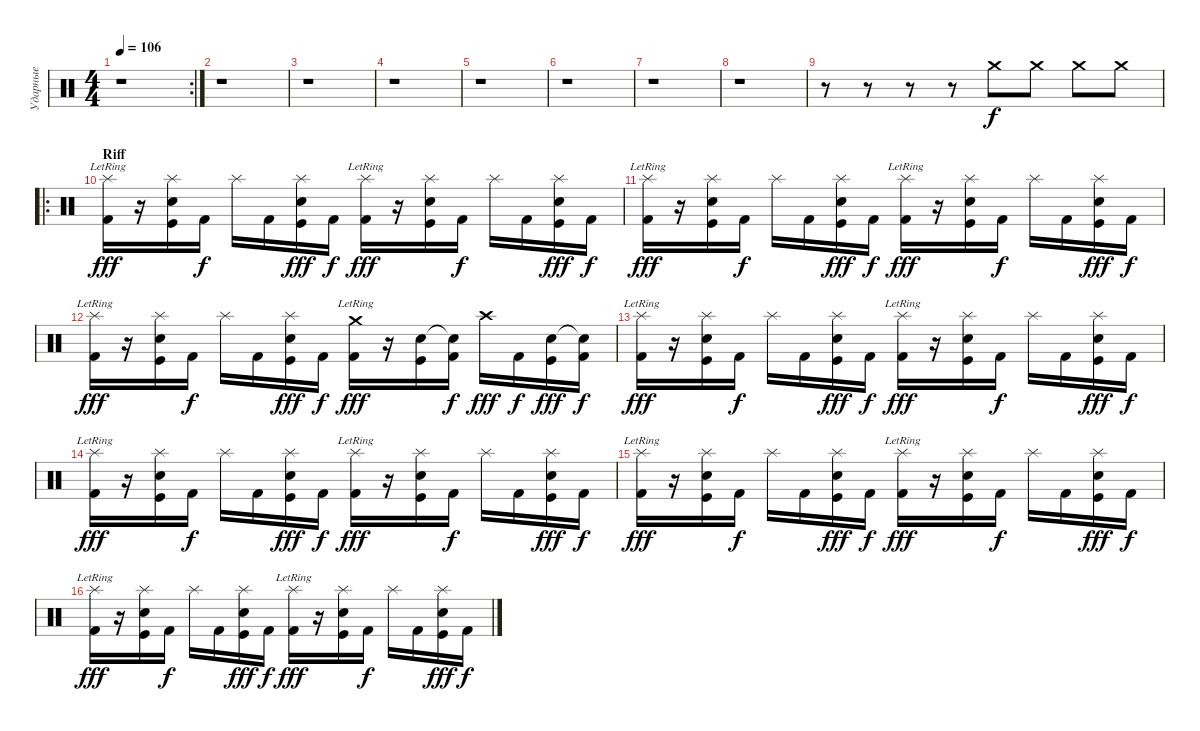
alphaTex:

\track ("Ударные" "Ударные") {instrument percussion}
\staff {score}
\articulation defaults
\rc 2
\ts (4 4)
\tempo 106
\clef neutral
\ks c
r.1{dy f} |
r.1 |
r.1 |
r.1 |
r.1 |
r.1 |
r.1 |
r.1 |
r.8 r.8 r.8 r.8 "Crash medium (hit)".8 "Crash medium (hit)".8 "Crash medium (hit)".8 "Crash medium (hit)".8 |
\ro
\section ("" "Riff")
("Splash (hit)"{lr} "Kick (hit) 2").16{dy fff} r.16 ("Splash (hit)"{pm} "Electric Snare (hit)" "Kick (hit)").16 "Kick (hit) 2".16{dy f} "Splash (hit)"{pm}.16 "Kick (hit) 2".16 ("Splash (hit)"{pm} "Electric Snare (hit)" "Kick (hit)").16{dy fff} "Kick (hit) 2".16{dy f} ("Splash (hit)"{lr} "Kick (hit) 2").16{dy fff} r.16 ("Splash (hit)"{pm} "Electric Snare (hit)" "Kick (hit)").16 "Kick (hit) 2".16{dy f} "Splash (hit)"{pm}.16 "Kick (hit) 2".16 ("Splash (hit)"{pm} "Electric Snare (hit)" "Kick (hit)").16{dy fff} "Kick (hit) 2".16{dy f} |
("Splash (hit)"{lr} "Kick (hit) 2").16{dy fff} r.16 ("Splash (hit)"{pm} "Electric Snare (hit)" "Kick (hit)").16 "Kick (hit) 2".16{dy f} "Splash (hit)"{pm}.16 "Kick (hit) 2".16 ("Splash (hit)"{pm} "Electric Snare (hit)" "Kick (hit)").16{dy fff} "Kick (hit) 2".16{dy f} ("Splash (hit)"{lr} "Kick (hit) 2").16{dy fff} r.16 ("Splash (hit)"{pm} "Electric Snare (hit)" "Kick (hit)").16 "Kick (hit) 2".16{dy f} "Splash (hit)"{pm}.16 "Kick (hit) 2".16 ("Splash (hit)"{pm} "Electric Snare (hit)" "Kick (hit)").16{dy fff} "Kick (hit) 2".16{dy f} |
("Splash (hit)"{lr} "Kick (hit) 2").16{dy fff} r.16 ("Splash (hit)"{pm} "Electric Snare (hit)" "Kick (hit)").16 "Kick (hit) 2".16{dy f} "Splash (hit)"{pm}.16 "Kick (hit) 2".16 ("Splash (hit)"{pm} "Electric Snare (hit)" "Kick (hit)").16{dy fff} "Kick (hit) 2".16{dy f} ("Crash medium (hit)"{lr} "Kick (hit) 2").16{dy fff} r.16 ("Electric Snare (hit)" "Kick (hit)").16 ("Snare (hit)"{t} "Kick (hit) 2").16{dy f} "Crash high (hit)"{pm}.16{dy fff} "Kick (hit) 2".16{dy f} ("Electric Snare (hit)" "Kick (hit)").16{dy fff} ("Snare (hit)"{t} "Kick (hit) 2").16{dy f} |
("Splash (hit)"{lr} "Kick (hit) 2").16{dy fff} r.16 ("Splash (hit)"{pm} "Electric Snare (hit)" "Kick (hit)").16 "Kick (hit) 2".16{dy f} "Splash (hit)"{pm}.16 "Kick (hit) 2".16 ("Splash (hit)"{pm} "Electric Snare (hit)" "Kick (hit)").16{dy fff} "Kick (hit) 2".16{dy f} ("Splash (hit)"{lr} "Kick (hit) 2").16{dy fff} r.16 ("Splash (hit)"{pm} "Electric Snare (hit)" "Kick (hit)").16 "Kick (hit) 2".16{dy f} "Splash (hit)"{pm}.16 "Kick (hit) 2".16 ("Splash (hit)"{pm} "Electric Snare (hit)" "Kick (hit)").16{dy fff} "Kick (hit) 2".16{dy f} |
("Splash (hit)"{lr} "Kick (hit) 2").16{dy fff} r.16 ("Splash (hit)"{pm} "Electric Snare (hit)" "Kick (hit)").16 "Kick (hit) 2".16{dy f} "Splash (hit)"{pm}.16 "Kick (hit) 2".16 ("Splash (hit)"{pm} "Electric Snare (hit)" "Kick (hit)").16{dy fff} "Kick (hit) 2".16{dy f} ("Splash (hit)"{lr} "Kick (hit) 2").16{dy fff} r.16 ("Splash (hit)"{pm} "Electric Snare (hit)" "Kick (hit)").16 "Kick (hit) 2".16{dy f} "Splash (hit)"{pm}.16 "Kick (hit) 2".16 ("Splash (hit)"{pm} "Electric Snare (hit)" "Kick (hit)").16{dy fff} "Kick (hit) 2".16{dy f} |
("Splash (hit)"{lr} "Kick (hit) 2").16{dy fff} r.16 ("Splash (hit)"{pm} "Electric Snare (hit)" "Kick (hit)").16 "Kick (hit) 2".16{dy f} "Splash (hit)"{pm}.16 "Kick (hit) 2".16 ("Splash (hit)"{pm} "Electric Snare (hit)" "Kick (hit)").16{dy fff} "Kick (hit) 2".16{dy f} ("Splash (hit)"{lr} "Kick (hit) 2").16{dy fff} r.16 ("Splash (hit)"{pm} "Electric Snare (hit)" "Kick (hit)").16 "Kick (hit) 2".16{dy f} "Splash (hit)"{pm}.16 "Kick (hit) 2".16 ("Splash (hit)"{pm} "Electric Snare (hit)" "Kick (hit)").16{dy fff} "Kick (hit) 2".16{dy f} |
("Splash (hit)"{lr} "Kick (hit) 2").16{dy fff} r.16 ("Splash (hit)"{pm} "Electric Snare (hit)" "Kick (hit)").16 "Kick (hit) 2".16{dy f} "Splash (hit)"{pm}.16 "Kick (hit) 2".16 ("Splash (hit)"{pm} "Electric Snare (hit)" "Kick (hit)").16{dy fff} "Kick (hit) 2".16{dy f} ("Splash (hit)"{lr} "Kick (hit) 2").16{dy fff} r.16 ("Splash (hit)"{pm} "Electric Snare (hit)" "Kick (hit)").16 "Kick (hit) 2".16{dy f} "Splash (hit)"{pm}.16 "Kick (hit) 2".16 ("Splash (hit)"{pm} "Electric Snare (hit)" "Kick (hit)").16{dy fff} "Kick (hit) 2".16{dy f}
